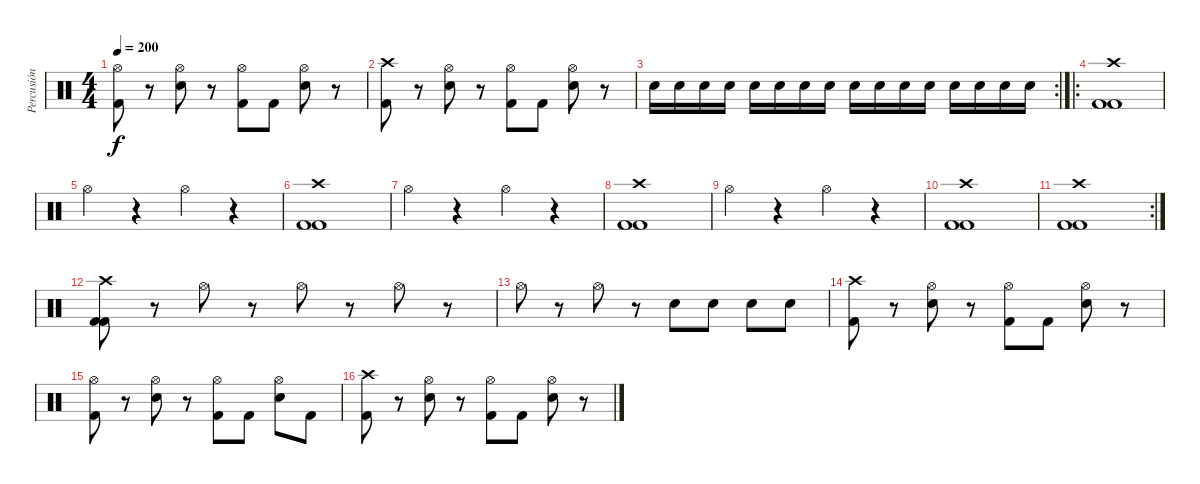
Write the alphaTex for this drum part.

\track ("Percusión" "Percusión") {instrument percussion}
\staff {score}
\articulation defaults
\ts (4 4)
\tempo 200
\clef neutral
\ks c
("Hi-Hat (open)" "Kick (hit) 2").8{dy f} r.8 ("Hi-Hat (open)" "Electric Snare (hit)").8 r.8 ("Hi-Hat (open)" "Kick (hit) 2").8 "Kick (hit) 2".8 ("Hi-Hat (open)" "Electric Snare (hit)").8 r.8 |
("Crash high (hit)" "Kick (hit) 2").8 r.8 ("Hi-Hat (open)" "Electric Snare (hit)").8 r.8 ("Hi-Hat (open)" "Kick (hit) 2").8 "Kick (hit) 2".8 ("Hi-Hat (open)" "Electric Snare (hit)").8 r.8 |
\rc 2 "Electric Snare (hit)".16 "Electric Snare (hit)".16 "Electric Snare (hit)".16 "Electric Snare (hit)".16 "Electric Snare (hit)".16 "Electric Snare (hit)".16 "Electric Snare (hit)".16 "Electric Snare (hit)".16 "Electric Snare (hit)".16 "Electric Snare (hit)".16 "Electric Snare (hit)".16 "Electric Snare (hit)".16 "Electric Snare (hit)".16 "Electric Snare (hit)".16 "Electric Snare (hit)".16 "Electric Snare (hit)".16
|
\ro
("Crash high (hit)" "Kick (hit) 2" "Kick (hit) 2").1 |
"Hi-Hat (open)".4 r.4 "Hi-Hat (open)".4 r.4 |
("Crash high (hit)" "Kick (hit) 2" "Kick (hit) 2").1 |
"Hi-Hat (open)".4 r.4 "Hi-Hat (open)".4 r.4 |
("Crash high (hit)" "Kick (hit) 2" "Kick (hit) 2").1 |
"Hi-Hat (open)".4 r.4 "Hi-Hat (open)".4 r.4 |
("Crash high (hit)" "Kick (hit) 2" "Kick (hit) 2").1 |
\rc 2
("Crash high (hit)" "Kick (hit) 2" "Kick (hit) 2").1 |
("Crash high (hit)" "Kick (hit) 2" "Kick (hit) 2").8 r.8 "Hi-Hat (open)".8 r.8 "Hi-Hat (open)".8 r.8 "Hi-Hat (open)".8 r.8 |
"Hi-Hat (open)".8 r.8 "Hi-Hat (open)".8 r.8 "Electric Snare (hit)".8 "Electric Snare (hit)".8 "Electric Snare (hit)".8 "Electric Snare (hit)".8 |
("Crash high (hit)" "Kick (hit) 2").8 r.8 ("Hi-Hat (open)" "Electric Snare (hit)").8 r.8 ("Hi-Hat (open)" "Kick (hit) 2").8 "Kick (hit) 2".8 ("Hi-Hat (open)" "Electric Snare (hit)").8 r.8 |
("Hi-Hat (open)" "Kick (hit) 2").8 r.8 ("Hi-Hat (open)" "Electric Snare (hit)").8 r.8 ("Hi-Hat (open)" "Kick (hit) 2").8 "Kick (hit) 2".8 ("Hi-Hat (open)" "Electric Snare (hit)").8 "Kick (hit) 2".8 |
("Crash high (hit)" "Kick (hit) 2").8 r.8 ("Hi-Hat (open)" "Electric Snare (hit)").8 r.8 ("Hi-Hat (open)" "Kick (hit) 2").8 "Kick (hit) 2".8 ("Hi-Hat (open)" "Electric Snare (hit)").8 r.8
